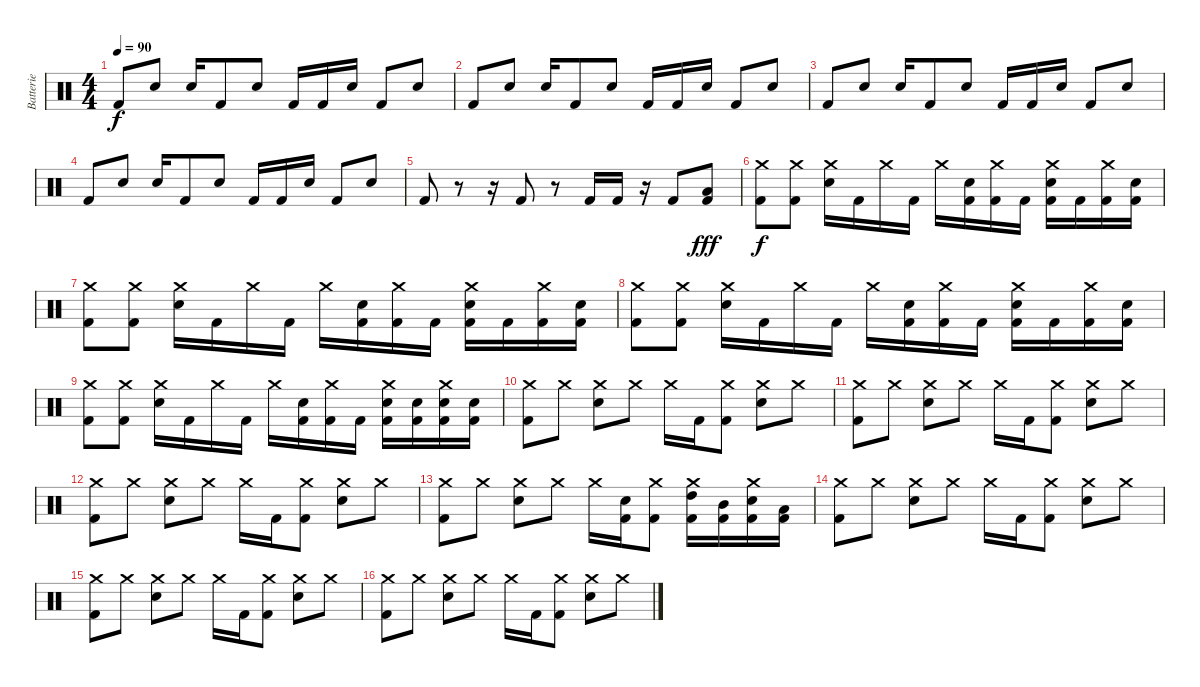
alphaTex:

\track ("Batterie" "Batterie") {instrument percussion}
\staff {score}
\articulation defaults
\ts (4 4)
\tempo 90
\clef neutral
\ks c "Kick (hit) 2".8{dy f} "Snare (hit) 2".8 "Snare (hit) 2".16 "Kick (hit) 2".8 "Snare (hit) 2".8 "Kick (hit) 2".16 "Kick (hit) 2".16 "Snare (hit) 2".16 "Kick (hit) 2".8 "Snare (hit) 2".8
|
"Kick (hit) 2".8 "Snare (hit) 2".8 "Snare (hit) 2".16 "Kick (hit) 2".8 "Snare (hit) 2".8 "Kick (hit) 2".16 "Kick (hit) 2".16 "Snare (hit) 2".16 "Kick (hit) 2".8 "Snare (hit) 2".8 |
"Kick (hit) 2".8 "Snare (hit) 2".8 "Snare (hit) 2".16 "Kick (hit) 2".8 "Snare (hit) 2".8 "Kick (hit) 2".16 "Kick (hit) 2".16 "Snare (hit) 2".16 "Kick (hit) 2".8 "Snare (hit) 2".8 |
"Kick (hit) 2".8 "Snare (hit) 2".8 "Snare (hit) 2".16 "Kick (hit) 2".8 "Snare (hit) 2".8 "Kick (hit) 2".16 "Kick (hit) 2".16 "Snare (hit) 2".16 "Kick (hit) 2".8 "Snare (hit) 2".8 |
"Kick (hit) 2".8 r.8 r.16 "Kick (hit) 2".8 r.8 "Kick (hit) 2".16 "Kick (hit) 2".16 r.16 "Kick (hit) 2".8 ("Low Tom (hit)" "Kick (hit) 2").8{dy fff} |
("Crash medium (hit)" "Kick (hit) 2").8{dy f} ("Crash medium (hit)" "Kick (hit) 2").8 ("Crash medium (hit)" "Snare (hit) 2").16 "Kick (hit) 2".16 "Crash medium (hit)".16 "Kick (hit) 2".16 "Crash medium (hit)".16 ("Snare (hit) 2" "Kick (hit) 2").16 ("Crash medium (hit)" "Kick (hit) 2").16 "Kick (hit) 2".16 ("Crash medium (hit)" "Snare (hit) 2" "Kick (hit) 2").16 "Kick (hit) 2".16 ("Crash medium (hit)" "Kick (hit) 2").16 ("Snare (hit) 2" "Kick (hit) 2").16 |
("Crash medium (hit)" "Kick (hit) 2").8 ("Crash medium (hit)" "Kick (hit) 2").8 ("Crash medium (hit)" "Snare (hit) 2").16 "Kick (hit) 2".16 "Crash medium (hit)".16 "Kick (hit) 2".16 "Crash medium (hit)".16 ("Snare (hit) 2" "Kick (hit) 2").16 ("Crash medium (hit)" "Kick (hit) 2").16 "Kick (hit) 2".16 ("Crash medium (hit)" "Snare (hit) 2" "Kick (hit) 2").16 "Kick (hit) 2".16 ("Crash medium (hit)" "Kick (hit) 2").16 ("Snare (hit) 2" "Kick (hit) 2").16 |
("Crash medium (hit)" "Kick (hit) 2").8 ("Crash medium (hit)" "Kick (hit) 2").8 ("Crash medium (hit)" "Snare (hit) 2").16 "Kick (hit) 2".16 "Crash medium (hit)".16 "Kick (hit) 2".16 "Crash medium (hit)".16 ("Snare (hit) 2" "Kick (hit) 2").16 ("Crash medium (hit)" "Kick (hit) 2").16 "Kick (hit) 2".16 ("Crash medium (hit)" "Snare (hit) 2" "Kick (hit) 2").16 "Kick (hit) 2".16 ("Crash medium (hit)" "Kick (hit) 2").16 ("Snare (hit) 2" "Kick (hit) 2").16 |
("Crash medium (hit)" "Kick (hit) 2").8 ("Crash medium (hit)" "Kick (hit) 2").8 ("Crash medium (hit)" "Snare (hit) 2").16 "Kick (hit) 2".16 "Crash medium (hit)".16 "Kick (hit) 2".16 "Crash medium (hit)".16 ("Snare (hit) 2" "Kick (hit) 2").16 ("Crash medium (hit)" "Kick (hit) 2").16 "Kick (hit) 2".16 ("Crash medium (hit)" "Snare (hit) 2" "Kick (hit) 2").16 ("Snare (hit) 2" "Kick (hit) 2").16 ("Crash medium (hit)" "Snare (hit) 2" "Kick (hit) 2").16 ("Snare (hit) 2" "Kick (hit) 2").16 |
("Crash medium (hit)" "Kick (hit) 2").8 "Crash medium (hit)".8 ("Crash medium (hit)" "Snare (hit) 2").8 "Crash medium (hit)".8 "Crash medium (hit)".16 "Kick (hit) 2".16 ("Crash medium (hit)" "Kick (hit) 2").8 ("Crash medium (hit)" "Snare (hit) 2").8 "Crash medium (hit)".8 |
("Crash medium (hit)" "Kick (hit) 2").8 "Crash medium (hit)".8 ("Crash medium (hit)" "Snare (hit) 2").8 "Crash medium (hit)".8 "Crash medium (hit)".16 "Kick (hit) 2".16 ("Crash medium (hit)" "Kick (hit) 2").8 ("Crash medium (hit)" "Snare (hit) 2").8 "Crash medium (hit)".8 |
("Crash medium (hit)" "Kick (hit) 2").8 "Crash medium (hit)".8 ("Crash medium (hit)" "Snare (hit) 2").8 "Crash medium (hit)".8 "Crash medium (hit)".16 "Kick (hit) 2".16 ("Crash medium (hit)" "Kick (hit) 2").8 ("Crash medium (hit)" "Snare (hit) 2").8 "Crash medium (hit)".8 |
("Crash medium (hit)" "Kick (hit) 2").8 "Crash medium (hit)".8 ("Crash medium (hit)" "Snare (hit) 2").8 "Crash medium (hit)".8 "Crash medium (hit)".16 ("Snare (hit) 2" "Kick (hit) 2").16 ("Crash medium (hit)" "Kick (hit) 2").8 ("Crash medium (hit)" "High Tom (hit)" "Kick (hit) 2").16 ("Mid Tom (hit)" "Kick (hit) 2").16 ("Crash medium (hit)" "Snare (hit) 2" "Kick (hit) 2").16 ("Low Tom (hit)" "Kick (hit) 2").16 |
("Crash medium (hit)" "Kick (hit) 2").8 "Crash medium (hit)".8 ("Crash medium (hit)" "Snare (hit) 2").8 "Crash medium (hit)".8 "Crash medium (hit)".16 "Kick (hit) 2".16 ("Crash medium (hit)" "Kick (hit) 2").8 ("Crash medium (hit)" "Snare (hit) 2").8 "Crash medium (hit)".8 |
("Crash medium (hit)" "Kick (hit) 2").8 "Crash medium (hit)".8 ("Crash medium (hit)" "Snare (hit) 2").8 "Crash medium (hit)".8 "Crash medium (hit)".16 "Kick (hit) 2".16 ("Crash medium (hit)" "Kick (hit) 2").8 ("Crash medium (hit)" "Snare (hit) 2").8 "Crash medium (hit)".8 |
("Crash medium (hit)" "Kick (hit) 2").8 "Crash medium (hit)".8 ("Crash medium (hit)" "Snare (hit) 2").8 "Crash medium (hit)".8 "Crash medium (hit)".16 "Kick (hit) 2".16 ("Crash medium (hit)" "Kick (hit) 2").8 ("Crash medium (hit)" "Snare (hit) 2").8 "Crash medium (hit)".8
